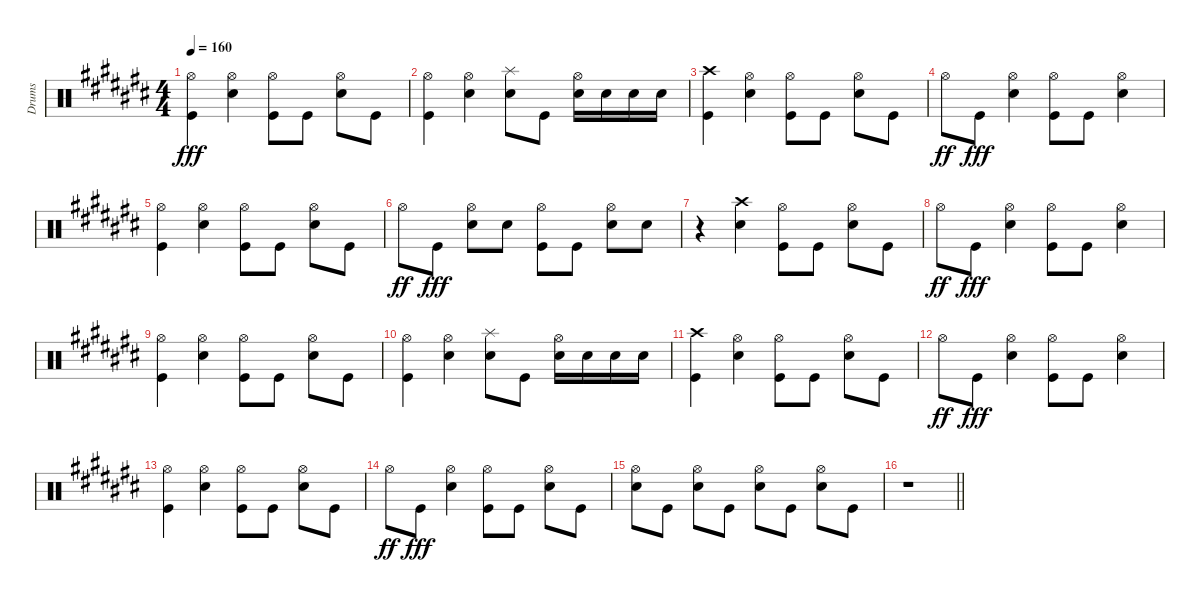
\track ("Drums" "Drums") {instrument percussion}
\staff {score}
\articulation defaults
\ts (4 4)
\tempo 160
\clef neutral
\ks c#
("Hi-Hat (open)" "Kick (hit)").4{dy fff} ("Hi-Hat (open)" "Snare (hit) 2").4 ("Hi-Hat (open)" "Kick (hit)").8 "Kick (hit)".8 ("Hi-Hat (open)" "Snare (hit) 2").8 "Kick (hit)".8 |
("Hi-Hat (open)" "Kick (hit)").4 ("Hi-Hat (open)" "Snare (hit) 2").4 ("Splash (hit)" "Snare (hit) 2").8 "Kick (hit)".8 ("Hi-Hat (open)" "Snare (hit) 2").16 "Snare (hit) 2".16 "Snare (hit) 2".16 "Snare (hit) 2".16 |
("Crash high (hit)" "Kick (hit)").4 ("Hi-Hat (open)" "Snare (hit) 2").4 ("Hi-Hat (open)" "Kick (hit)").8 "Kick (hit)".8 ("Hi-Hat (open)" "Snare (hit) 2").8 "Kick (hit)".8 |
"Hi-Hat (open)".8{dy ff} "Kick (hit)".8{dy fff} ("Hi-Hat (open)" "Snare (hit) 2").4 ("Hi-Hat (open)" "Kick (hit)").8 "Kick (hit)".8 ("Hi-Hat (open)" "Snare (hit) 2").4 |
("Hi-Hat (open)" "Kick (hit)").4 ("Hi-Hat (open)" "Snare (hit) 2").4 ("Hi-Hat (open)" "Kick (hit)").8 "Kick (hit)".8 ("Hi-Hat (open)" "Snare (hit) 2").8 "Kick (hit)".8 |
"Hi-Hat (open)".8{dy ff} "Kick (hit)".8{dy fff} ("Hi-Hat (open)" "Snare (hit) 2").8 "Snare (hit) 2".8 ("Hi-Hat (open)" "Kick (hit)").8 "Kick (hit)".8 ("Hi-Hat (open)" "Snare (hit) 2").8 "Snare (hit) 2".8 |
r.4 ("Crash high (hit)" "Snare (hit) 2").4 ("Hi-Hat (open)" "Kick (hit)").8 "Kick (hit)".8 ("Hi-Hat (open)" "Snare (hit) 2").8 "Kick (hit)".8 |
"Hi-Hat (open)".8{dy ff} "Kick (hit)".8{dy fff} ("Hi-Hat (open)" "Snare (hit) 2").4 ("Hi-Hat (open)" "Kick (hit)").8 "Kick (hit)".8 ("Hi-Hat (open)" "Snare (hit) 2").4 |
("Hi-Hat (open)" "Kick (hit)").4 ("Hi-Hat (open)" "Snare (hit) 2").4 ("Hi-Hat (open)" "Kick (hit)").8 "Kick (hit)".8 ("Hi-Hat (open)" "Snare (hit) 2").8 "Kick (hit)".8 |
("Hi-Hat (open)" "Kick (hit)").4 ("Hi-Hat (open)" "Snare (hit) 2").4 ("Splash (hit)" "Snare (hit) 2").8 "Kick (hit)".8 ("Hi-Hat (open)" "Snare (hit) 2").16 "Snare (hit) 2".16 "Snare (hit) 2".16 "Snare (hit) 2".16 |
("Crash high (hit)" "Kick (hit)").4 ("Hi-Hat (open)" "Snare (hit) 2").4 ("Hi-Hat (open)" "Kick (hit)").8 "Kick (hit)".8 ("Hi-Hat (open)" "Snare (hit) 2").8 "Kick (hit)".8 |
"Hi-Hat (open)".8{dy ff} "Kick (hit)".8{dy fff} ("Hi-Hat (open)" "Snare (hit) 2").4 ("Hi-Hat (open)" "Kick (hit)").8 "Kick (hit)".8 ("Hi-Hat (open)" "Snare (hit) 2").4 |
("Hi-Hat (open)" "Kick (hit)").4 ("Hi-Hat (open)" "Snare (hit) 2").4 ("Hi-Hat (open)" "Kick (hit)").8 "Kick (hit)".8 ("Hi-Hat (open)" "Snare (hit) 2").8 "Kick (hit)".8 |
"Hi-Hat (open)".8{dy ff} "Kick (hit)".8{dy fff} ("Hi-Hat (open)" "Snare (hit) 2").4 ("Hi-Hat (open)" "Kick (hit)").8 "Kick (hit)".8 ("Hi-Hat (open)" "Snare (hit) 2").8 "Kick (hit)".8 |
("Hi-Hat (open)" "Snare (hit) 2").8 "Kick (hit)".8 ("Hi-Hat (open)" "Snare (hit) 2").8 "Kick (hit)".8 ("Hi-Hat (open)" "Snare (hit) 2").8 "Kick (hit)".8 ("Hi-Hat (open)" "Snare (hit) 2").8 "Kick (hit)".8 |
\barLineRight lightlight
r.1
